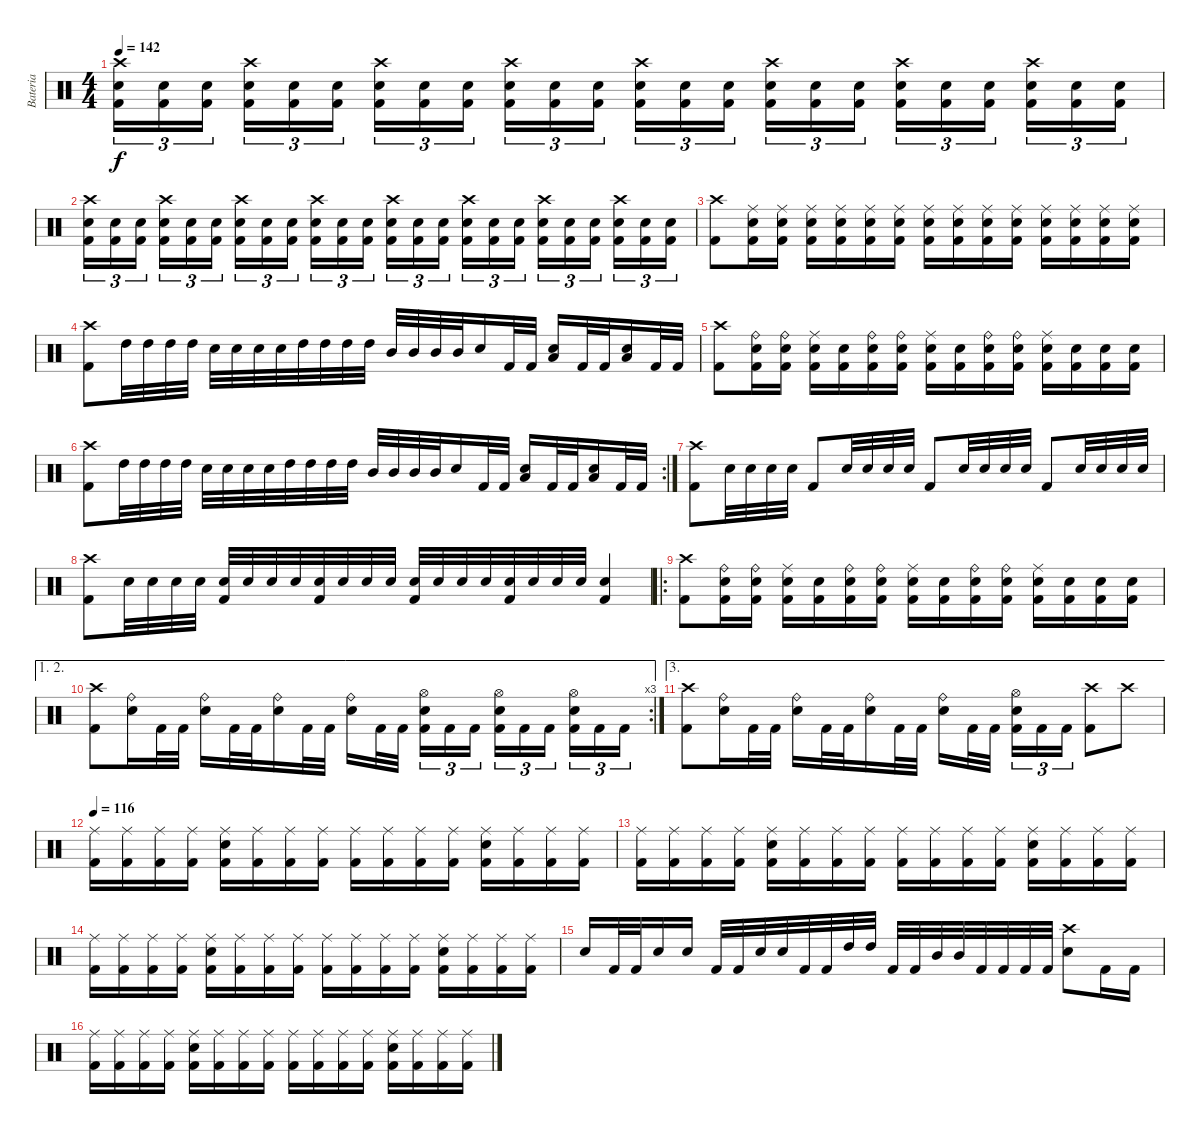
\track ("Bateria" "Bateria") {instrument percussion}
\staff {score}
\articulation defaults
\ts (4 4)
\tempo 142
\clef neutral
\ks c
("Crash high (hit)" "Electric Snare (hit)" "Kick (hit) 2").16{tu (3 2) dy f} ("Electric Snare (hit)" "Kick (hit) 2").16{tu (3 2)} ("Electric Snare (hit)" "Kick (hit) 2").16{tu (3 2) beam splitsecondary} ("Crash high (hit)" "Electric Snare (hit)" "Kick (hit) 2").16{tu (3 2)} ("Electric Snare (hit)" "Kick (hit) 2").16{tu (3 2)} ("Electric Snare (hit)" "Kick (hit) 2").16{tu (3 2)} ("Crash high (hit)" "Electric Snare (hit)" "Kick (hit) 2").16{tu (3 2)} ("Electric Snare (hit)" "Kick (hit) 2").16{tu (3 2)} ("Electric Snare (hit)" "Kick (hit) 2").16{tu (3 2) beam splitsecondary} ("Crash high (hit)" "Electric Snare (hit)" "Kick (hit) 2").16{tu (3 2)} ("Electric Snare (hit)" "Kick (hit) 2").16{tu (3 2)} ("Electric Snare (hit)" "Kick (hit) 2").16{tu (3 2)} ("Crash high (hit)" "Electric Snare (hit)" "Kick (hit) 2").16{tu (3 2)} ("Electric Snare (hit)" "Kick (hit) 2").16{tu (3 2)} ("Electric Snare (hit)" "Kick (hit) 2").16{tu (3 2) beam splitsecondary} ("Crash high (hit)" "Electric Snare (hit)" "Kick (hit) 2").16{tu (3 2)} ("Electric Snare (hit)" "Kick (hit) 2").16{tu (3 2)} ("Electric Snare (hit)" "Kick (hit) 2").16{tu (3 2)} ("Crash high (hit)" "Electric Snare (hit)" "Kick (hit) 2").16{tu (3 2)} ("Electric Snare (hit)" "Kick (hit) 2").16{tu (3 2)} ("Electric Snare (hit)" "Kick (hit) 2").16{tu (3 2) beam splitsecondary} ("Crash high (hit)" "Electric Snare (hit)" "Kick (hit) 2").16{tu (3 2)} ("Electric Snare (hit)" "Kick (hit) 2").16{tu (3 2)} ("Electric Snare (hit)" "Kick (hit) 2").16{tu (3 2)} |
("Crash high (hit)" "Electric Snare (hit)" "Kick (hit) 2").16{tu (3 2)} ("Electric Snare (hit)" "Kick (hit) 2").16{tu (3 2)} ("Electric Snare (hit)" "Kick (hit) 2").16{tu (3 2) beam splitsecondary} ("Crash high (hit)" "Electric Snare (hit)" "Kick (hit) 2").16{tu (3 2)} ("Electric Snare (hit)" "Kick (hit) 2").16{tu (3 2)} ("Electric Snare (hit)" "Kick (hit) 2").16{tu (3 2)} ("Crash high (hit)" "Electric Snare (hit)" "Kick (hit) 2").16{tu (3 2)} ("Electric Snare (hit)" "Kick (hit) 2").16{tu (3 2)} ("Electric Snare (hit)" "Kick (hit) 2").16{tu (3 2) beam splitsecondary} ("Crash high (hit)" "Electric Snare (hit)" "Kick (hit) 2").16{tu (3 2)} ("Electric Snare (hit)" "Kick (hit) 2").16{tu (3 2)} ("Electric Snare (hit)" "Kick (hit) 2").16{tu (3 2)} ("Crash high (hit)" "Electric Snare (hit)" "Kick (hit) 2").16{tu (3 2)} ("Electric Snare (hit)" "Kick (hit) 2").16{tu (3 2)} ("Electric Snare (hit)" "Kick (hit) 2").16{tu (3 2) beam splitsecondary} ("Crash high (hit)" "Electric Snare (hit)" "Kick (hit) 2").16{tu (3 2)} ("Electric Snare (hit)" "Kick (hit) 2").16{tu (3 2)} ("Electric Snare (hit)" "Kick (hit) 2").16{tu (3 2)} ("Crash high (hit)" "Electric Snare (hit)" "Kick (hit) 2").16{tu (3 2)} ("Electric Snare (hit)" "Kick (hit) 2").16{tu (3 2)} ("Electric Snare (hit)" "Kick (hit) 2").16{tu (3 2) beam splitsecondary} ("Crash high (hit)" "Electric Snare (hit)" "Kick (hit) 2").16{tu (3 2)} ("Electric Snare (hit)" "Kick (hit) 2").16{tu (3 2)} ("Electric Snare (hit)" "Kick (hit) 2").16{tu (3 2)} |
("Crash high (hit)" "Kick (hit) 2").8 ("Ride (middle)" "Electric Snare (hit)" "Kick (hit) 2").16 ("Ride (middle)" "Electric Snare (hit)" "Kick (hit) 2").16 ("Ride (middle)" "Electric Snare (hit)" "Kick (hit) 2").16 ("Ride (middle)" "Electric Snare (hit)" "Kick (hit) 2").16 ("Ride (middle)" "Electric Snare (hit)" "Kick (hit) 2").16 ("Ride (middle)" "Electric Snare (hit)" "Kick (hit) 2").16 ("Ride (middle)" "Electric Snare (hit)" "Kick (hit) 2").16 ("Ride (middle)" "Electric Snare (hit)" "Kick (hit) 2").16 ("Ride (middle)" "Electric Snare (hit)" "Kick (hit) 2").16 ("Ride (middle)" "Electric Snare (hit)" "Kick (hit) 2").16 ("Ride (middle)" "Electric Snare (hit)" "Kick (hit) 2").16 ("Ride (middle)" "Electric Snare (hit)" "Kick (hit) 2").16 ("Ride (middle)" "Electric Snare (hit)" "Kick (hit) 2").16 ("Ride (middle)" "Electric Snare (hit)" "Kick (hit) 2").16 |
("Crash high (hit)" "Kick (hit) 2").8 "High Tom (hit)".32 "High Tom (hit)".32 "High Tom (hit)".32 "High Tom (hit)".32 "Electric Snare (hit)".32 "Electric Snare (hit)".32 "Electric Snare (hit)".32 "Electric Snare (hit)".32 "High Tom (hit)".32 "High Tom (hit)".32 "High Tom (hit)".32 "High Tom (hit)".32 "Mid Tom (hit)".32 "Mid Tom (hit)".32 "Mid Tom (hit)".32 "Mid Tom (hit)".32 "Electric Snare (hit)".16 "Kick (hit) 2".32 "Kick (hit) 2".32 ("Low Tom (hit)" "Electric Snare (hit)").16 "Kick (hit) 2".32 "Kick (hit) 2".32 ("Low Tom (hit)" "Electric Snare (hit)").16 "Kick (hit) 2".32 "Kick (hit) 2".32 |
("Crash high (hit)" "Kick (hit) 2").8 ("Ride (bell)" "Electric Snare (hit)" "Kick (hit) 2").16 ("Ride (bell)" "Electric Snare (hit)" "Kick (hit) 2").16 ("Ride (middle)" "Electric Snare (hit)" "Kick (hit) 2").16 ("Electric Snare (hit)" "Kick (hit) 2").16 ("Ride (bell)" "Electric Snare (hit)" "Kick (hit) 2").16 ("Ride (bell)" "Electric Snare (hit)" "Kick (hit) 2").16 ("Ride (middle)" "Electric Snare (hit)" "Kick (hit) 2").16 ("Electric Snare (hit)" "Kick (hit) 2").16 ("Ride (bell)" "Electric Snare (hit)" "Kick (hit) 2").16 ("Ride (bell)" "Electric Snare (hit)" "Kick (hit) 2").16 ("Ride (middle)" "Electric Snare (hit)" "Kick (hit) 2").16 ("Electric Snare (hit)" "Kick (hit) 2").16 ("Electric Snare (hit)" "Kick (hit) 2").16 ("Electric Snare (hit)" "Kick (hit) 2").16 |
\rc 2
("Crash high (hit)" "Kick (hit) 2").8 "High Tom (hit)".32 "High Tom (hit)".32 "High Tom (hit)".32 "High Tom (hit)".32 "Electric Snare (hit)".32 "Electric Snare (hit)".32 "Electric Snare (hit)".32 "Electric Snare (hit)".32 "High Tom (hit)".32 "High Tom (hit)".32 "High Tom (hit)".32 "High Tom (hit)".32 "Mid Tom (hit)".32 "Mid Tom (hit)".32 "Mid Tom (hit)".32 "Mid Tom (hit)".32 "Electric Snare (hit)".16 "Kick (hit) 2".32 "Kick (hit) 2".32 ("Low Tom (hit)" "Electric Snare (hit)").16 "Kick (hit) 2".32 "Kick (hit) 2".32 ("Low Tom (hit)" "Electric Snare (hit)").16 "Kick (hit) 2".32 "Kick (hit) 2".32 |
("Crash high (hit)" "Kick (hit) 2").8 "Electric Snare (hit)".32 "Electric Snare (hit)".32 "Electric Snare (hit)".32 "Electric Snare (hit)".32 "Kick (hit) 2".8 "Electric Snare (hit)".32 "Electric Snare (hit)".32 "Electric Snare (hit)".32 "Electric Snare (hit)".32 "Kick (hit) 2".8 "Electric Snare (hit)".32 "Electric Snare (hit)".32 "Electric Snare (hit)".32 "Electric Snare (hit)".32 "Kick (hit) 2".8 "Electric Snare (hit)".32 "Electric Snare (hit)".32 "Electric Snare (hit)".32 "Electric Snare (hit)".32 |
("Crash high (hit)" "Kick (hit) 2").8 "Electric Snare (hit)".32 "Electric Snare (hit)".32 "Electric Snare (hit)".32 "Electric Snare (hit)".32 ("Electric Snare (hit)" "Kick (hit) 2").32 "Electric Snare (hit)".32 "Electric Snare (hit)".32 "Electric Snare (hit)".32 ("Electric Snare (hit)" "Kick (hit) 2").32 "Electric Snare (hit)".32 "Electric Snare (hit)".32 "Electric Snare (hit)".32 ("Electric Snare (hit)" "Kick (hit) 2").32 "Electric Snare (hit)".32 "Electric Snare (hit)".32 "Electric Snare (hit)".32 ("Electric Snare (hit)" "Kick (hit) 2").32 "Electric Snare (hit)".32 "Electric Snare (hit)".32 "Electric Snare (hit)".32 ("Electric Snare (hit)" "Kick (hit) 2").4 |
\ro
("Crash high (hit)" "Kick (hit) 2").8 ("Ride (bell)" "Electric Snare (hit)" "Kick (hit) 2").16 ("Ride (bell)" "Electric Snare (hit)" "Kick (hit) 2").16 ("Ride (middle)" "Electric Snare (hit)" "Kick (hit) 2").16 ("Electric Snare (hit)" "Kick (hit) 2").16 ("Ride (bell)" "Electric Snare (hit)" "Kick (hit) 2").16 ("Ride (bell)" "Electric Snare (hit)" "Kick (hit) 2").16 ("Ride (middle)" "Electric Snare (hit)" "Kick (hit) 2").16 ("Electric Snare (hit)" "Kick (hit) 2").16 ("Ride (bell)" "Electric Snare (hit)" "Kick (hit) 2").16 ("Ride (bell)" "Electric Snare (hit)" "Kick (hit) 2").16 ("Ride (middle)" "Electric Snare (hit)" "Kick (hit) 2").16 ("Electric Snare (hit)" "Kick (hit) 2").16 ("Electric Snare (hit)" "Kick (hit) 2").16 ("Electric Snare (hit)" "Kick (hit) 2").16 |
\ae (1 2)
\rc 3
("Crash high (hit)" "Kick (hit) 2").8 ("Ride (bell)" "Electric Snare (hit)").16 "Kick (hit) 2".32 "Kick (hit) 2".32 ("Ride (bell)" "Electric Snare (hit)").16 "Kick (hit) 2".32 "Kick (hit) 2".32 ("Ride (bell)" "Electric Snare (hit)").16 "Kick (hit) 2".32 "Kick (hit) 2".32 ("Ride (bell)" "Electric Snare (hit)").16 "Kick (hit) 2".32 "Kick (hit) 2".32{beam splitsecondary} ("Hi-Hat (open)" "Electric Snare (hit)" "Kick (hit) 2").16{tu (3 2)} "Kick (hit) 2".16{tu (3 2)} "Kick (hit) 2".16{tu (3 2)} ("Hi-Hat (open)" "Electric Snare (hit)" "Kick (hit) 2").16{tu (3 2)} "Kick (hit) 2".16{tu (3 2)} "Kick (hit) 2".16{tu (3 2) beam splitsecondary} ("Hi-Hat (open)" "Electric Snare (hit)" "Kick (hit) 2").16{tu (3 2)} "Kick (hit) 2".16{tu (3 2)} "Kick (hit) 2".16{tu (3 2)} |
\ae 3
("Crash high (hit)" "Kick (hit) 2").8 ("Ride (bell)" "Electric Snare (hit)").16 "Kick (hit) 2".32 "Kick (hit) 2".32 ("Ride (bell)" "Electric Snare (hit)").16 "Kick (hit) 2".32 "Kick (hit) 2".32 ("Ride (bell)" "Electric Snare (hit)").16 "Kick (hit) 2".32 "Kick (hit) 2".32 ("Ride (bell)" "Electric Snare (hit)").16 "Kick (hit) 2".32 "Kick (hit) 2".32{beam splitsecondary} ("Hi-Hat (open)" "Electric Snare (hit)" "Kick (hit) 2").16{tu (3 2)} "Kick (hit) 2".16{tu (3 2)} "Kick (hit) 2".16{tu (3 2)} ("Crash high (hit)" "Kick (hit) 2").8 "Crash high (hit)".8 |
\tempo 116
("Ride (middle)" "Kick (hit) 2").16 ("Ride (middle)" "Kick (hit) 2").16 ("Ride (middle)" "Kick (hit) 2").16 ("Ride (middle)" "Kick (hit) 2").16 ("Ride (middle)" "Electric Snare (hit)" "Kick (hit) 2").16 ("Ride (middle)" "Kick (hit) 2").16 ("Ride (middle)" "Kick (hit) 2").16 ("Ride (middle)" "Kick (hit) 2").16 ("Ride (middle)" "Kick (hit) 2").16 ("Ride (middle)" "Kick (hit) 2").16 ("Ride (middle)" "Kick (hit) 2").16 ("Ride (middle)" "Kick (hit) 2").16 ("Ride (middle)" "Electric Snare (hit)" "Kick (hit) 2").16 ("Ride (middle)" "Kick (hit) 2").16 ("Ride (middle)" "Kick (hit) 2").16 ("Ride (middle)" "Kick (hit) 2").16 |
("Ride (middle)" "Kick (hit) 2").16 ("Ride (middle)" "Kick (hit) 2").16 ("Ride (middle)" "Kick (hit) 2").16 ("Ride (middle)" "Kick (hit) 2").16 ("Ride (middle)" "Electric Snare (hit)" "Kick (hit) 2").16 ("Ride (middle)" "Kick (hit) 2").16 ("Ride (middle)" "Kick (hit) 2").16 ("Ride (middle)" "Kick (hit) 2").16 ("Ride (middle)" "Kick (hit) 2").16 ("Ride (middle)" "Kick (hit) 2").16 ("Ride (middle)" "Kick (hit) 2").16 ("Ride (middle)" "Kick (hit) 2").16 ("Ride (middle)" "Electric Snare (hit)" "Kick (hit) 2").16 ("Ride (middle)" "Kick (hit) 2").16 ("Ride (middle)" "Kick (hit) 2").16 ("Ride (middle)" "Kick (hit) 2").16 |
("Ride (middle)" "Kick (hit) 2").16 ("Ride (middle)" "Kick (hit) 2").16 ("Ride (middle)" "Kick (hit) 2").16 ("Ride (middle)" "Kick (hit) 2").16 ("Ride (middle)" "Electric Snare (hit)" "Kick (hit) 2").16 ("Ride (middle)" "Kick (hit) 2").16 ("Ride (middle)" "Kick (hit) 2").16 ("Ride (middle)" "Kick (hit) 2").16 ("Ride (middle)" "Kick (hit) 2").16 ("Ride (middle)" "Kick (hit) 2").16 ("Ride (middle)" "Kick (hit) 2").16 ("Ride (middle)" "Kick (hit) 2").16 ("Ride (middle)" "Electric Snare (hit)" "Kick (hit) 2").16 ("Ride (middle)" "Kick (hit) 2").16 ("Ride (middle)" "Kick (hit) 2").16 ("Ride (middle)" "Kick (hit) 2").16 |
"Electric Snare (hit)".16 "Kick (hit) 2".32 "Kick (hit) 2".32 "Electric Snare (hit)".16 "Electric Snare (hit)".16 "Kick (hit) 2".32 "Kick (hit) 2".32 "Electric Snare (hit)".32 "Electric Snare (hit)".32 "Kick (hit) 2".32 "Kick (hit) 2".32 "High Tom (hit)".32 "High Tom (hit)".32 "Kick (hit) 2".32 "Kick (hit) 2".32 "Mid Tom (hit)".32 "Mid Tom (hit)".32 "Kick (hit) 2".32 "Kick (hit) 2".32 "Kick (hit) 2".32 "Kick (hit) 2".32 ("Crash high (hit)" "Electric Snare (hit)").8 "Kick (hit) 2".16 "Kick (hit) 2".16 |
("Ride (middle)" "Kick (hit) 2").16 ("Ride (middle)" "Kick (hit) 2").16 ("Ride (middle)" "Kick (hit) 2").16 ("Ride (middle)" "Kick (hit) 2").16 ("Ride (middle)" "Electric Snare (hit)" "Kick (hit) 2").16 ("Ride (middle)" "Kick (hit) 2").16 ("Ride (middle)" "Kick (hit) 2").16 ("Ride (middle)" "Kick (hit) 2").16 ("Ride (middle)" "Kick (hit) 2").16 ("Ride (middle)" "Kick (hit) 2").16 ("Ride (middle)" "Kick (hit) 2").16 ("Ride (middle)" "Kick (hit) 2").16 ("Ride (middle)" "Electric Snare (hit)" "Kick (hit) 2").16 ("Ride (middle)" "Kick (hit) 2").16 ("Ride (middle)" "Kick (hit) 2").16 ("Ride (middle)" "Kick (hit) 2").16
